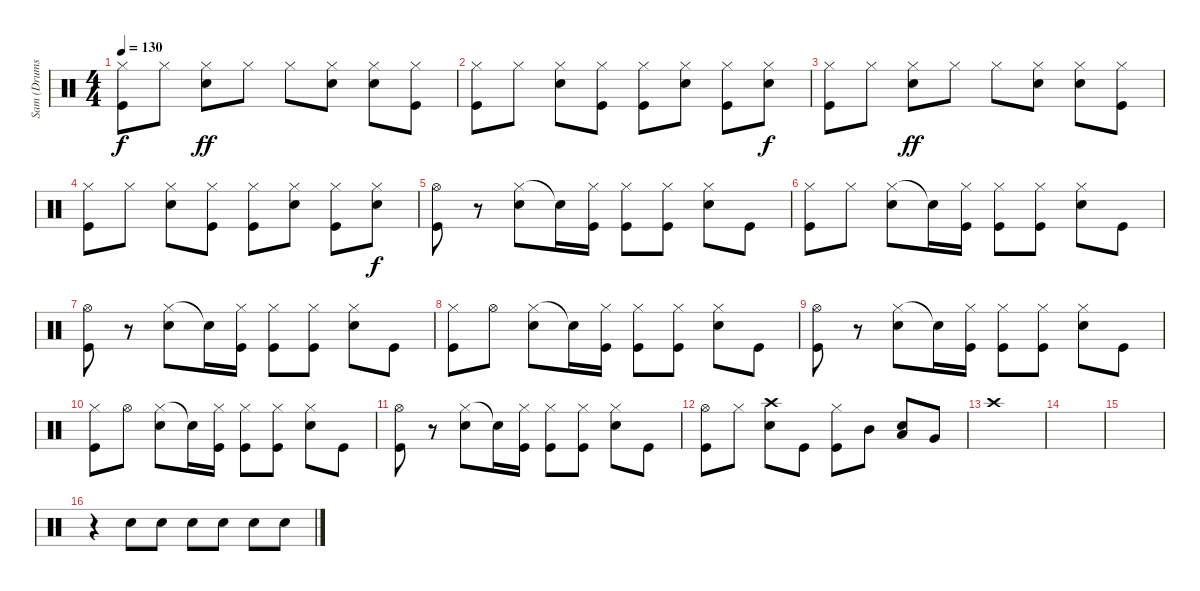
\track ("Sam (Drums)" "Sam (Drums") {instrument percussion}
\staff {score}
\articulation defaults
\ts (4 4)
\tempo 130
\clef neutral
\ks c
("Hi-Hat (closed)" "Kick (hit)").8{dy f} "Hi-Hat (closed)".8 ("Hi-Hat (closed)" "Snare (hit) 2").8{dy ff} "Hi-Hat (closed)".8 "Hi-Hat (closed)".8 ("Hi-Hat (closed)" "Snare (hit) 2").8 ("Hi-Hat (closed)" "Snare (hit) 2").8 ("Hi-Hat (closed)" "Kick (hit)").8 |
("Hi-Hat (closed)" "Kick (hit)").8 "Hi-Hat (closed)".8 ("Hi-Hat (closed)" "Snare (hit) 2").8 ("Hi-Hat (closed)" "Kick (hit)").8 ("Hi-Hat (closed)" "Kick (hit)").8 ("Hi-Hat (closed)" "Snare (hit) 2").8 ("Hi-Hat (closed)" "Kick (hit)").8 ("Hi-Hat (closed)" "Snare (hit) 2").8{dy f} |
("Hi-Hat (closed)" "Kick (hit)").8 "Hi-Hat (closed)".8 ("Hi-Hat (closed)" "Snare (hit) 2").8{dy ff} "Hi-Hat (closed)".8 "Hi-Hat (closed)".8 ("Hi-Hat (closed)" "Snare (hit) 2").8 ("Hi-Hat (closed)" "Snare (hit) 2").8 ("Hi-Hat (closed)" "Kick (hit)").8 |
("Hi-Hat (closed)" "Kick (hit)").8 "Hi-Hat (closed)".8 ("Hi-Hat (closed)" "Snare (hit) 2").8 ("Hi-Hat (closed)" "Kick (hit)").8 ("Hi-Hat (closed)" "Kick (hit)").8 ("Hi-Hat (closed)" "Snare (hit) 2").8 ("Hi-Hat (closed)" "Kick (hit)").8 ("Hi-Hat (closed)" "Snare (hit) 2").8{dy f} |
("Hi-Hat (open)" "Kick (hit)").8 r.8 ("Hi-Hat (closed)" "Snare (hit) 2").8 "Snare (hit)"{t}.16 ("Hi-Hat (closed)" "Kick (hit)").16 ("Hi-Hat (closed)" "Kick (hit)").8 ("Hi-Hat (closed)" "Kick (hit)").8 ("Hi-Hat (closed)" "Snare (hit) 2").8 "Kick (hit)".8 |
("Hi-Hat (closed)" "Kick (hit)").8 "Hi-Hat (closed)".8 ("Hi-Hat (closed)" "Snare (hit) 2").8 "Snare (hit)"{t}.16 ("Hi-Hat (closed)" "Kick (hit)").16 ("Hi-Hat (closed)" "Kick (hit)").8 ("Hi-Hat (closed)" "Kick (hit)").8 ("Hi-Hat (closed)" "Snare (hit) 2").8 "Kick (hit)".8 |
("Hi-Hat (open)" "Kick (hit)").8 r.8 ("Hi-Hat (closed)" "Snare (hit) 2").8 "Snare (hit)"{t}.16 ("Hi-Hat (closed)" "Kick (hit)").16 ("Hi-Hat (closed)" "Kick (hit)").8 ("Hi-Hat (closed)" "Kick (hit)").8 ("Hi-Hat (closed)" "Snare (hit) 2").8 "Kick (hit)".8 |
("Hi-Hat (closed)" "Kick (hit)").8 "Hi-Hat (open)".8 ("Hi-Hat (closed)" "Snare (hit) 2").8 "Snare (hit)"{t}.16 ("Hi-Hat (closed)" "Kick (hit)").16 ("Hi-Hat (closed)" "Kick (hit)").8 ("Hi-Hat (closed)" "Kick (hit)").8 ("Hi-Hat (closed)" "Snare (hit) 2").8 "Kick (hit)".8 |
("Hi-Hat (open)" "Kick (hit)").8 r.8 ("Hi-Hat (closed)" "Snare (hit) 2").8 "Snare (hit)"{t}.16 ("Hi-Hat (closed)" "Kick (hit)").16 ("Hi-Hat (closed)" "Kick (hit)").8 ("Hi-Hat (closed)" "Kick (hit)").8 ("Hi-Hat (closed)" "Snare (hit) 2").8 "Kick (hit)".8 |
("Hi-Hat (closed)" "Kick (hit)").8 "Hi-Hat (open)".8 ("Hi-Hat (closed)" "Snare (hit) 2").8 "Snare (hit)"{t}.16 ("Hi-Hat (closed)" "Kick (hit)").16 ("Hi-Hat (closed)" "Kick (hit)").8 ("Hi-Hat (closed)" "Kick (hit)").8 ("Hi-Hat (closed)" "Snare (hit) 2").8 "Kick (hit)".8 |
("Hi-Hat (open)" "Kick (hit)").8 r.8 ("Hi-Hat (closed)" "Snare (hit) 2").8 "Snare (hit)"{t}.16 ("Hi-Hat (closed)" "Kick (hit)").16 ("Hi-Hat (closed)" "Kick (hit)").8 ("Hi-Hat (closed)" "Kick (hit)").8 ("Hi-Hat (closed)" "Snare (hit) 2").8 "Kick (hit)".8 |
("Hi-Hat (open)" "Kick (hit)").8 "Hi-Hat (closed)".8 ("Crash high (hit)" "Snare (hit) 2").8 "Kick (hit)".8 ("Hi-Hat (closed)" "Kick (hit)").8 "Mid Tom (hit)".8 ("Low Tom (hit)" "Snare (hit) 2").8 "Very Low Tom (hit)".8 |
"Crash high (hit)".1 |
|
|
r.4 "Snare (hit) 2".8 "Snare (hit) 2".8 "Snare (hit) 2".8 "Snare (hit) 2".8 "Snare (hit) 2".8 "Snare (hit) 2".8
